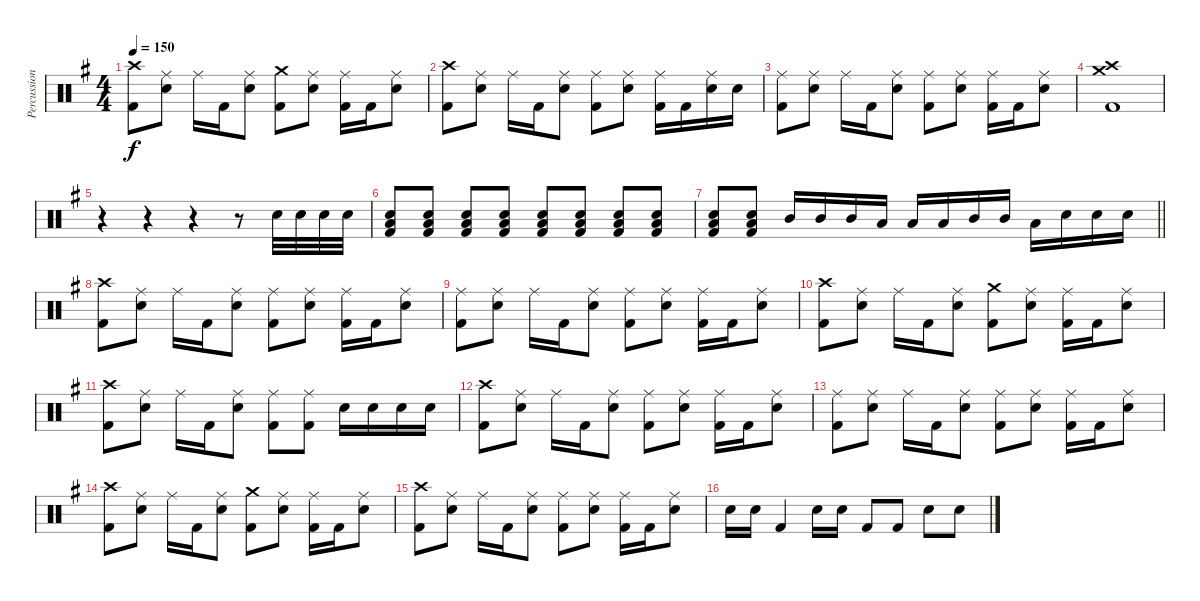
\track ("Percussion" "Percussion") {instrument percussion}
\staff {score}
\articulation defaults
\ts (4 4)
\tempo 150
\clef neutral
\ks g
("Crash high (hit)" "Kick (hit) 2").8{dy f} ("Ride (middle)" "Electric Snare (hit)").8 "Ride (middle)".16 "Kick (hit) 2".16 ("Ride (middle)" "Electric Snare (hit)").8 ("Crash medium (hit)" "Kick (hit) 2").8 ("Ride (middle)" "Electric Snare (hit)").8 ("Ride (middle)" "Kick (hit) 2").16 "Kick (hit) 2".16 ("Ride (middle)" "Electric Snare (hit)").8 |
("Crash high (hit)" "Kick (hit) 2").8 ("Ride (middle)" "Electric Snare (hit)").8 "Ride (middle)".16 "Kick (hit) 2".16 ("Ride (middle)" "Electric Snare (hit)").8 ("Ride (middle)" "Kick (hit) 2").8 ("Ride (middle)" "Electric Snare (hit)").8 ("Ride (middle)" "Kick (hit) 2").16 "Kick (hit) 2".16 ("Ride (middle)" "Electric Snare (hit)").16 "Electric Snare (hit)".16 |
("Ride (middle)" "Kick (hit) 2").8 ("Ride (middle)" "Electric Snare (hit)").8 "Ride (middle)".16 "Kick (hit) 2".16 ("Ride (middle)" "Electric Snare (hit)").8 ("Ride (middle)" "Kick (hit) 2").8 ("Ride (middle)" "Electric Snare (hit)").8 ("Ride (middle)" "Kick (hit) 2").16 "Kick (hit) 2".16 ("Ride (middle)" "Electric Snare (hit)").8 |
("Crash medium (hit)" "Crash high (hit)" "Kick (hit) 2").1 |
r.4 r.4 r.4 r.8 "Electric Snare (hit)".32 "Electric Snare (hit)".32 "Electric Snare (hit)".32 "Electric Snare (hit)".32 |
("Low Tom (hit)" "Electric Snare (hit)" "Kick (hit) 2").8 ("Low Tom (hit)" "Electric Snare (hit)" "Kick (hit) 2").8 ("Low Tom (hit)" "Electric Snare (hit)" "Kick (hit) 2").8 ("Low Tom (hit)" "Electric Snare (hit)" "Kick (hit) 2").8 ("Low Tom (hit)" "Electric Snare (hit)" "Kick (hit) 2").8 ("Low Tom (hit)" "Electric Snare (hit)" "Kick (hit) 2").8 ("Low Tom (hit)" "Electric Snare (hit)" "Kick (hit) 2").8 ("Low Tom (hit)" "Electric Snare (hit)" "Kick (hit) 2").8 |
\barLineRight lightlight
("Low Tom (hit)" "Electric Snare (hit)" "Kick (hit) 2").8 ("Low Tom (hit)" "Electric Snare (hit)" "Kick (hit) 2").8 "Mid Tom (hit)".16 "Mid Tom (hit)".16 "Mid Tom (hit)".16 "Low Tom (hit)".16 "Low Tom (hit)".16 "Low Tom (hit)".16 "Mid Tom (hit)".16 "Mid Tom (hit)".16 "Low Tom (hit)".16 "Electric Snare (hit)".16 "Electric Snare (hit)".16 "Electric Snare (hit)".16 |
("Crash high (hit)" "Kick (hit) 2").8 ("Ride (middle)" "Electric Snare (hit)").8 "Ride (middle)".16 "Kick (hit) 2".16 ("Ride (middle)" "Electric Snare (hit)").8 ("Ride (middle)" "Kick (hit) 2").8 ("Ride (middle)" "Electric Snare (hit)").8 ("Ride (middle)" "Kick (hit) 2").16 "Kick (hit) 2".16 ("Ride (middle)" "Electric Snare (hit)").8 |
("Ride (middle)" "Kick (hit) 2").8 ("Ride (middle)" "Electric Snare (hit)").8 "Ride (middle)".16 "Kick (hit) 2".16 ("Ride (middle)" "Electric Snare (hit)").8 ("Ride (middle)" "Kick (hit) 2").8 ("Ride (middle)" "Electric Snare (hit)").8 ("Ride (middle)" "Kick (hit) 2").16 "Kick (hit) 2".16 ("Ride (middle)" "Electric Snare (hit)").8 |
("Crash high (hit)" "Kick (hit) 2").8 ("Ride (middle)" "Electric Snare (hit)").8 "Ride (middle)".16 "Kick (hit) 2".16 ("Ride (middle)" "Electric Snare (hit)").8 ("Crash medium (hit)" "Kick (hit) 2").8 ("Ride (middle)" "Electric Snare (hit)").8 ("Ride (middle)" "Kick (hit) 2").16 "Kick (hit) 2".16 ("Ride (middle)" "Electric Snare (hit)").8 |
("Crash high (hit)" "Kick (hit) 2").8 ("Ride (middle)" "Electric Snare (hit)").8 "Ride (middle)".16 "Kick (hit) 2".16 ("Ride (middle)" "Electric Snare (hit)").8 ("Ride (middle)" "Kick (hit) 2").8 ("Ride (middle)" "Kick (hit) 2").8 "Electric Snare (hit)".16 "Electric Snare (hit)".16 "Electric Snare (hit)".16 "Electric Snare (hit)".16 |
("Crash high (hit)" "Kick (hit) 2").8 ("Ride (middle)" "Electric Snare (hit)").8 "Ride (middle)".16 "Kick (hit) 2".16 ("Ride (middle)" "Electric Snare (hit)").8 ("Ride (middle)" "Kick (hit) 2").8 ("Ride (middle)" "Electric Snare (hit)").8 ("Ride (middle)" "Kick (hit) 2").16 "Kick (hit) 2".16 ("Ride (middle)" "Electric Snare (hit)").8 |
("Ride (middle)" "Kick (hit) 2").8 ("Ride (middle)" "Electric Snare (hit)").8 "Ride (middle)".16 "Kick (hit) 2".16 ("Ride (middle)" "Electric Snare (hit)").8 ("Ride (middle)" "Kick (hit) 2").8 ("Ride (middle)" "Electric Snare (hit)").8 ("Ride (middle)" "Kick (hit) 2").16 "Kick (hit) 2".16 ("Ride (middle)" "Electric Snare (hit)").8 |
("Crash high (hit)" "Kick (hit) 2").8 ("Ride (middle)" "Electric Snare (hit)").8 "Ride (middle)".16 "Kick (hit) 2".16 ("Ride (middle)" "Electric Snare (hit)").8 ("Crash medium (hit)" "Kick (hit) 2").8 ("Ride (middle)" "Electric Snare (hit)").8 ("Ride (middle)" "Kick (hit) 2").16 "Kick (hit) 2".16 ("Ride (middle)" "Electric Snare (hit)").8 |
("Crash high (hit)" "Kick (hit) 2").8 ("Ride (middle)" "Electric Snare (hit)").8 "Ride (middle)".16 "Kick (hit) 2".16 ("Ride (middle)" "Electric Snare (hit)").8 ("Ride (middle)" "Kick (hit) 2").8 ("Ride (middle)" "Electric Snare (hit)").8 ("Ride (middle)" "Kick (hit) 2").16 "Kick (hit) 2".16 ("Ride (middle)" "Electric Snare (hit)").8 |
"Electric Snare (hit)".16 "Electric Snare (hit)".16 "Kick (hit) 2".4 "Electric Snare (hit)".16 "Electric Snare (hit)".16 "Kick (hit) 2".8 "Kick (hit) 2".8 "Electric Snare (hit)".8 "Electric Snare (hit)".8
